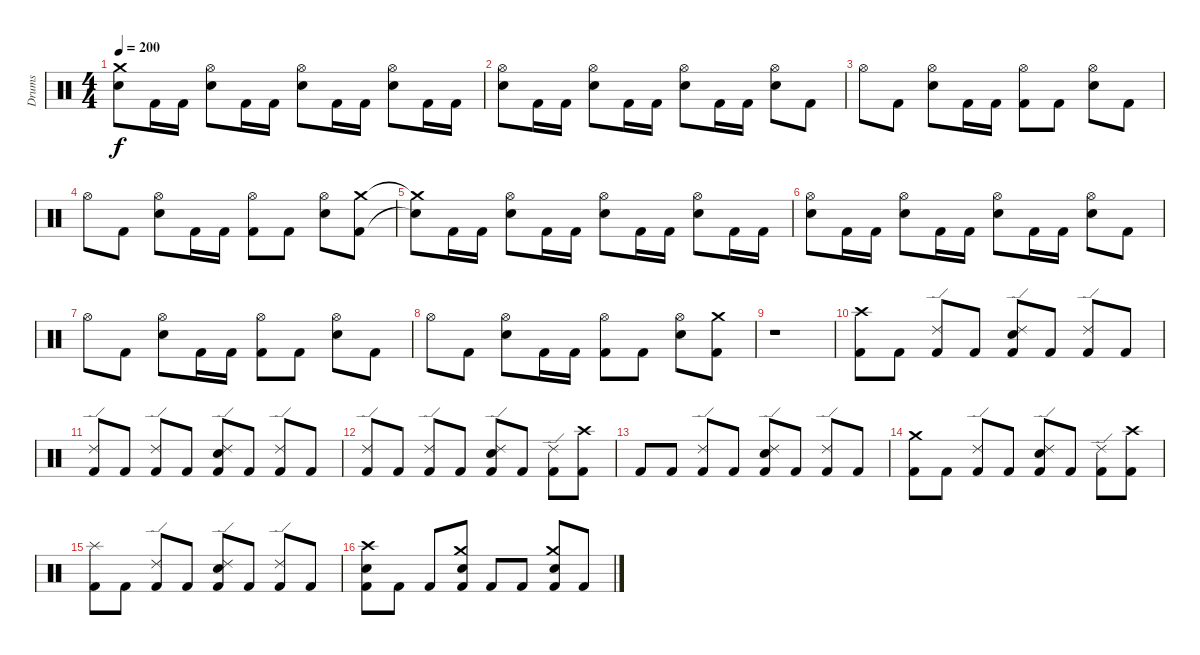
\track ("Drums" "Drums") {instrument percussion}
\staff {score}
\articulation defaults
\ts (4 4)
\section ("" "")
\tempo 200
\clef neutral
\ks c
("Electric Snare (hit)" "Crash medium (hit)").8{dy f} "Kick (hit) 2".16 "Kick (hit) 2".16 ("Electric Snare (hit)" "Hi-Hat (open)").8 "Kick (hit) 2".16 "Kick (hit) 2".16 ("Electric Snare (hit)" "Hi-Hat (open)").8 "Kick (hit) 2".16 "Kick (hit) 2".16 ("Electric Snare (hit)" "Hi-Hat (open)").8 "Kick (hit) 2".16 "Kick (hit) 2".16 |
("Electric Snare (hit)" "Hi-Hat (open)").8 "Kick (hit) 2".16 "Kick (hit) 2".16 ("Electric Snare (hit)" "Hi-Hat (open)").8 "Kick (hit) 2".16 "Kick (hit) 2".16 ("Electric Snare (hit)" "Hi-Hat (open)").8 "Kick (hit) 2".16 "Kick (hit) 2".16 ("Electric Snare (hit)" "Hi-Hat (open)").8 "Kick (hit) 2".8 |
"Hi-Hat (open)".8 "Kick (hit) 2".8 ("Electric Snare (hit)" "Hi-Hat (open)").8 "Kick (hit) 2".16 "Kick (hit) 2".16 ("Kick (hit) 2" "Hi-Hat (open)").8 "Kick (hit) 2".8 ("Electric Snare (hit)" "Hi-Hat (open)").8 "Kick (hit) 2".8 |
"Hi-Hat (open)".8 "Kick (hit) 2".8 ("Electric Snare (hit)" "Hi-Hat (open)").8 "Kick (hit) 2".16 "Kick (hit) 2".16 ("Kick (hit) 2" "Hi-Hat (open)").8 "Kick (hit) 2".8 ("Electric Snare (hit)" "Hi-Hat (open)").8 ("Kick (hit) 2" "Crash medium (hit)").8 |
("Snare (hit)"{t} "Crash medium (hit)"{t}).8 "Kick (hit) 2".16 "Kick (hit) 2".16 ("Electric Snare (hit)" "Hi-Hat (open)").8 "Kick (hit) 2".16 "Kick (hit) 2".16 ("Electric Snare (hit)" "Hi-Hat (open)").8 "Kick (hit) 2".16 "Kick (hit) 2".16 ("Electric Snare (hit)" "Hi-Hat (open)").8 "Kick (hit) 2".16 "Kick (hit) 2".16 |
("Electric Snare (hit)" "Hi-Hat (open)").8 "Kick (hit) 2".16 "Kick (hit) 2".16 ("Electric Snare (hit)" "Hi-Hat (open)").8 "Kick (hit) 2".16 "Kick (hit) 2".16 ("Electric Snare (hit)" "Hi-Hat (open)").8 "Kick (hit) 2".16 "Kick (hit) 2".16 ("Electric Snare (hit)" "Hi-Hat (open)").8 "Kick (hit) 2".8 |
"Hi-Hat (open)".8 "Kick (hit) 2".8 ("Electric Snare (hit)" "Hi-Hat (open)").8 "Kick (hit) 2".16 "Kick (hit) 2".16 ("Kick (hit) 2" "Hi-Hat (open)").8 "Kick (hit) 2".8 ("Electric Snare (hit)" "Hi-Hat (open)").8 "Kick (hit) 2".8 |
"Hi-Hat (open)".8 "Kick (hit) 2".8 ("Electric Snare (hit)" "Hi-Hat (open)").8 "Kick (hit) 2".16 "Kick (hit) 2".16 ("Kick (hit) 2" "Hi-Hat (open)").8 "Kick (hit) 2".8 ("Electric Snare (hit)" "Hi-Hat (open)").8 ("Kick (hit) 2" "Crash medium (hit)").8 |
r.1 |
\section ("" "")
("Kick (hit) 2" "Crash high (hit)").8 "Kick (hit) 2".8 ("Kick (hit) 2" "Ride (edge) 2").8 "Kick (hit) 2".8 ("Kick (hit) 2" "Electric Snare (hit)" "Ride (edge) 2").8 "Kick (hit) 2".8 ("Kick (hit) 2" "Ride (edge) 2").8 "Kick (hit) 2".8 |
("Kick (hit) 2" "Ride (edge) 2").8 "Kick (hit) 2".8 ("Kick (hit) 2" "Ride (edge) 2").8 "Kick (hit) 2".8 ("Kick (hit) 2" "Electric Snare (hit)" "Ride (edge) 2").8 "Kick (hit) 2".8 ("Kick (hit) 2" "Ride (edge) 2").8 "Kick (hit) 2".8 |
("Kick (hit) 2" "Ride (edge) 2").8 "Kick (hit) 2".8 ("Kick (hit) 2" "Ride (edge) 2").8 "Kick (hit) 2".8 ("Kick (hit) 2" "Electric Snare (hit)" "Ride (edge) 2").8 "Kick (hit) 2".8 ("Kick (hit) 2" "Ride (edge) 2").8 ("Kick (hit) 2" "Crash high (hit)").8 |
"Kick (hit) 2".8 "Kick (hit) 2".8 ("Kick (hit) 2" "Ride (edge) 2").8 "Kick (hit) 2".8 ("Kick (hit) 2" "Electric Snare (hit)" "Ride (edge) 2").8 "Kick (hit) 2".8 ("Kick (hit) 2" "Ride (edge) 2").8 "Kick (hit) 2".8 |
("Kick (hit) 2" "Crash medium (hit)").8 "Kick (hit) 2".8 ("Kick (hit) 2" "Ride (edge) 2").8 "Kick (hit) 2".8 ("Kick (hit) 2" "Electric Snare (hit)" "Ride (edge) 2").8 "Kick (hit) 2".8 ("Kick (hit) 2" "Ride (edge) 2").8 ("Kick (hit) 2" "Crash high (hit)").8 |
("Kick (hit) 2" "Splash (hit)").8 "Kick (hit) 2".8 ("Kick (hit) 2" "Ride (edge) 2").8 "Kick (hit) 2".8 ("Kick (hit) 2" "Electric Snare (hit)" "Ride (edge) 2").8 "Kick (hit) 2".8 ("Kick (hit) 2" "Ride (edge) 2").8 "Kick (hit) 2".8 |
("Kick (hit) 2" "Electric Snare (hit)" "Crash high (hit)").8 "Kick (hit) 2".8 "Kick (hit) 2".8 ("Kick (hit) 2" "Electric Snare (hit)" "Crash medium (hit)").8 "Kick (hit) 2".8 "Kick (hit) 2".8 ("Kick (hit) 2" "Electric Snare (hit)" "Crash medium (hit)").8 "Kick (hit) 2".8
